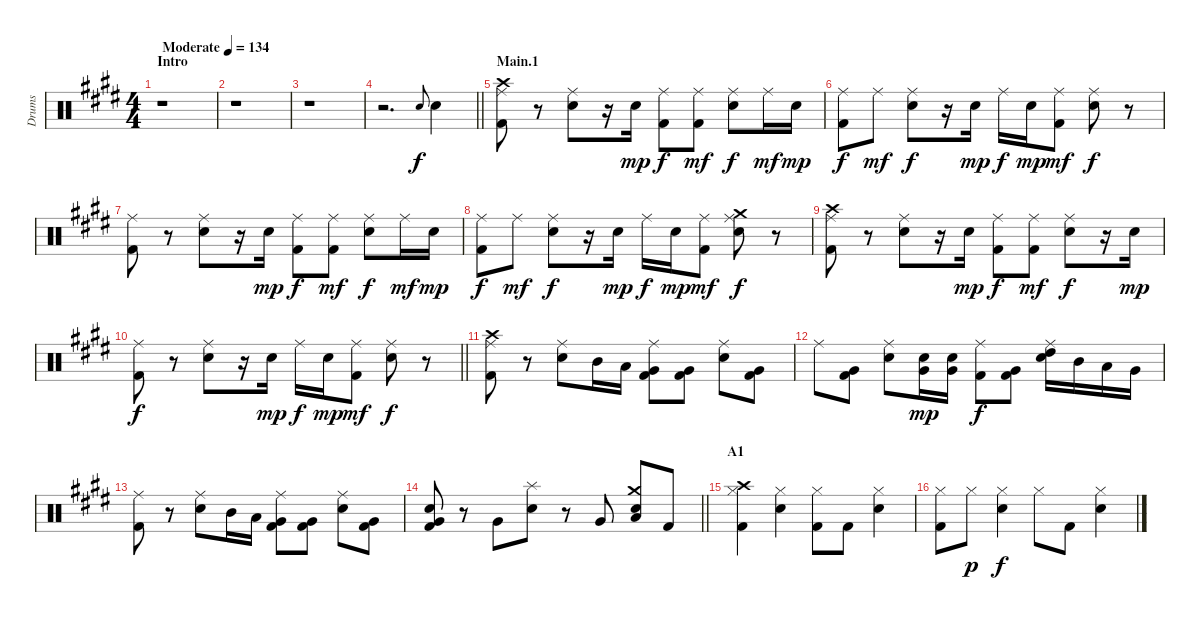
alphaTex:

\track ("Drums" "Drums") {instrument percussion}
\staff {score}
\articulation defaults
\ts (4 4)
\section ("" "Intro")
\tempo (134 "Moderate")
\clef neutral
\ks e
r.1{dy f} |
r.1 |
r.1 |
\barLineRight lightlight
r.2{d} "Electric Snare (hit)".8{gr onbeat} "Electric Snare (hit)".4 |
\section ("" "Main.1")
("Ride (middle)" "Crash high (hit)" "Kick (hit) 2").8 r.8 ("Ride (middle)" "Electric Snare (hit)").8 r.16 "Electric Snare (hit)".16{dy mp} ("Ride (middle)" "Kick (hit) 2").8{dy f} ("Ride (middle)" "Kick (hit) 2").8{dy mf} ("Ride (middle)" "Electric Snare (hit)").8{dy f} "Ride (middle)".16{dy mf} "Electric Snare (hit)".16{dy mp} |
("Ride (middle)" "Kick (hit) 2").8{dy f} "Ride (middle)".8{dy mf} ("Ride (middle)" "Electric Snare (hit)").8{dy f} r.16 "Electric Snare (hit)".16{dy mp} "Ride (middle)".16{dy f} "Electric Snare (hit)".16{dy mp} ("Ride (middle)" "Kick (hit) 2").8{dy mf} ("Ride (middle)" "Electric Snare (hit)").8{dy f} r.8 |
("Ride (middle)" "Kick (hit) 2").8 r.8 ("Ride (middle)" "Electric Snare (hit)").8 r.16 "Electric Snare (hit)".16{dy mp} ("Ride (middle)" "Kick (hit) 2").8{dy f} ("Ride (middle)" "Kick (hit) 2").8{dy mf} ("Ride (middle)" "Electric Snare (hit)").8{dy f} "Ride (middle)".16{dy mf} "Electric Snare (hit)".16{dy mp} |
("Ride (middle)" "Kick (hit) 2").8{dy f} "Ride (middle)".8{dy mf} ("Ride (middle)" "Electric Snare (hit)").8{dy f} r.16 "Electric Snare (hit)".16{dy mp} "Ride (middle)".16{dy f} "Electric Snare (hit)".16{dy mp} ("Ride (middle)" "Kick (hit) 2").8{dy mf} ("Ride (middle)" "Crash medium (hit)" "Electric Snare (hit)").8{dy f} r.8 |
("Ride (middle)" "Crash high (hit)" "Kick (hit) 2").8 r.8 ("Ride (middle)" "Electric Snare (hit)").8 r.16 "Electric Snare (hit)".16{dy mp} ("Ride (middle)" "Kick (hit) 2").8{dy f} ("Ride (middle)" "Kick (hit) 2").8{dy mf} ("Ride (middle)" "Electric Snare (hit)").8{dy f} r.16 "Electric Snare (hit)".16{dy mp} |
\barLineRight lightlight
("Ride (middle)" "Kick (hit) 2").8{dy f} r.8 ("Ride (middle)" "Electric Snare (hit)").8 r.16 "Electric Snare (hit)".16{dy mp} "Ride (middle)".16{dy f} "Electric Snare (hit)".16{dy mp} ("Ride (middle)" "Kick (hit) 2").8{dy mf} ("Ride (middle)" "Electric Snare (hit)").8{dy f} r.8 |
("Ride (middle)" "Crash high (hit)" "Kick (hit) 2").8 r.8 ("Ride (middle)" "Electric Snare (hit)").8 "Mid Tom (hit)".16 "Low Tom (hit)".16 ("Ride (middle)" "Very Low Tom (hit)" "Kick (hit) 2").8 ("Very Low Tom (hit)" "Kick (hit) 2").8 ("Ride (middle)" "Electric Snare (hit)").8 ("Very Low Tom (hit)" "Kick (hit) 2").8 |
"Ride (middle)".8 ("Very Low Tom (hit)" "Kick (hit) 2").8 ("Ride (middle)" "Electric Snare (hit)").8 ("Very Low Tom (hit)" "Electric Snare (hit)").16{dy mp} ("Very Low Tom (hit)" "Electric Snare (hit)").16 ("Ride (middle)" "Kick (hit) 2").8{dy f} ("Very Low Tom (hit)" "Kick (hit) 2").8 ("Ride (middle)" "High Tom (hit)" "Electric Snare (hit)").16 "Mid Tom (hit)".16 "Low Tom (hit)".16 "Very Low Tom (hit)".16 |
("Ride (middle)" "Kick (hit) 2").8 r.8 ("Ride (middle)" "Electric Snare (hit)").8 "Mid Tom (hit)".16 "Low Tom (hit)".16 ("Ride (middle)" "Very Low Tom (hit)" "Kick (hit) 2").8 ("Very Low Tom (hit)" "Kick (hit) 2").8 ("Ride (middle)" "Electric Snare (hit)").8 ("Very Low Tom (hit)" "Kick (hit) 2").8 |
\barLineRight lightlight
("Very Low Tom (hit)" "Electric Snare (hit)" "Kick (hit) 2").8 r.8 "Very Low Tom (hit)".8 ("Splash (hit)" "Electric Snare (hit)").8 r.8 "Very Low Tom (hit)".8 ("Crash medium (hit)" "Low Tom (hit)" "Electric Snare (hit)").8 "Kick (hit) 2".8 |
\section ("" "A1")
("Hi-Hat (closed)" "Crash high (hit)" "Kick (hit) 2").4 ("Hi-Hat (closed)" "Electric Snare (hit)").4 ("Hi-Hat (closed)" "Kick (hit) 2").8 "Kick (hit) 2".8 ("Hi-Hat (closed)" "Electric Snare (hit)").4 |
("Hi-Hat (closed)" "Kick (hit) 2").8 "Hi-Hat (closed)".8{dy p} ("Hi-Hat (closed)" "Electric Snare (hit)").4{dy f} "Hi-Hat (closed)".8 "Kick (hit) 2".8 ("Hi-Hat (closed)" "Electric Snare (hit)").4
